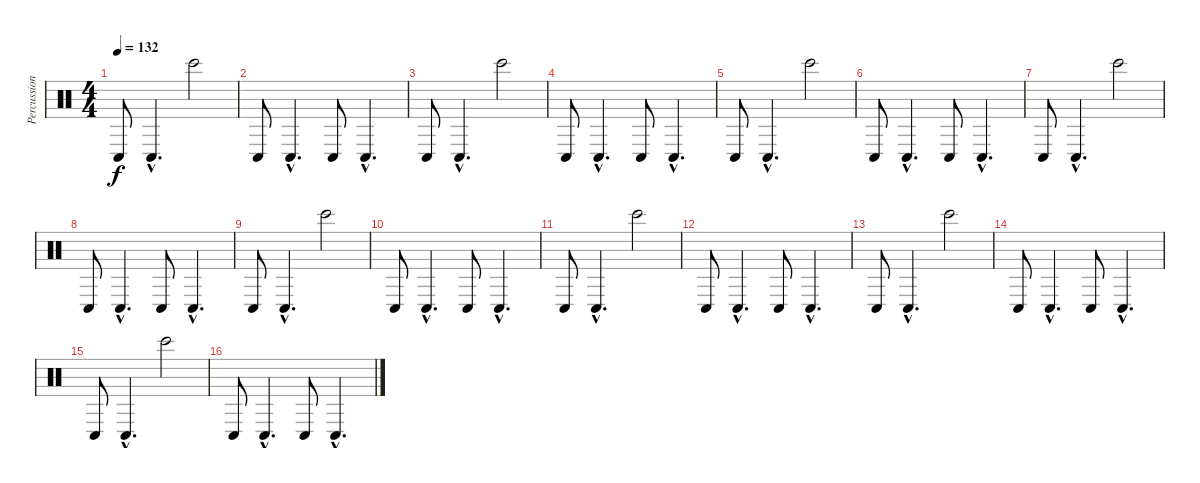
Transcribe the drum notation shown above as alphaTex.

\track ("Percussion" "Percussion") {instrument percussion}
\staff {score}
\articulation defaults
\ts (4 4)
\tempo 132
\clef neutral
\ks c "Conga low (hit)".8{dy f} "Conga low (hit)"{hac}.4{d} "Bongo High (hit)".2
|
"Conga low (hit)".8 "Conga low (hit)"{hac}.4{d} "Conga low (hit)".8 "Conga low (hit)"{hac}.4{d} |
"Conga low (hit)".8 "Conga low (hit)"{hac}.4{d} "Bongo High (hit)".2 |
"Conga low (hit)".8 "Conga low (hit)"{hac}.4{d} "Conga low (hit)".8 "Conga low (hit)"{hac}.4{d} |
"Conga low (hit)".8 "Conga low (hit)"{hac}.4{d} "Bongo High (hit)".2 |
"Conga low (hit)".8 "Conga low (hit)"{hac}.4{d} "Conga low (hit)".8 "Conga low (hit)"{hac}.4{d} |
"Conga low (hit)".8 "Conga low (hit)"{hac}.4{d} "Bongo High (hit)".2 |
"Conga low (hit)".8 "Conga low (hit)"{hac}.4{d} "Conga low (hit)".8 "Conga low (hit)"{hac}.4{d} |
"Conga low (hit)".8 "Conga low (hit)"{hac}.4{d} "Bongo High (hit)".2 |
"Conga low (hit)".8 "Conga low (hit)"{hac}.4{d} "Conga low (hit)".8 "Conga low (hit)"{hac}.4{d} |
"Conga low (hit)".8 "Conga low (hit)"{hac}.4{d} "Bongo High (hit)".2 |
"Conga low (hit)".8 "Conga low (hit)"{hac}.4{d} "Conga low (hit)".8 "Conga low (hit)"{hac}.4{d} |
"Conga low (hit)".8 "Conga low (hit)"{hac}.4{d} "Bongo High (hit)".2 |
"Conga low (hit)".8 "Conga low (hit)"{hac}.4{d} "Conga low (hit)".8 "Conga low (hit)"{hac}.4{d} |
"Conga low (hit)".8 "Conga low (hit)"{hac}.4{d} "Bongo High (hit)".2 |
"Conga low (hit)".8 "Conga low (hit)"{hac}.4{d} "Conga low (hit)".8 "Conga low (hit)"{hac}.4{d}
